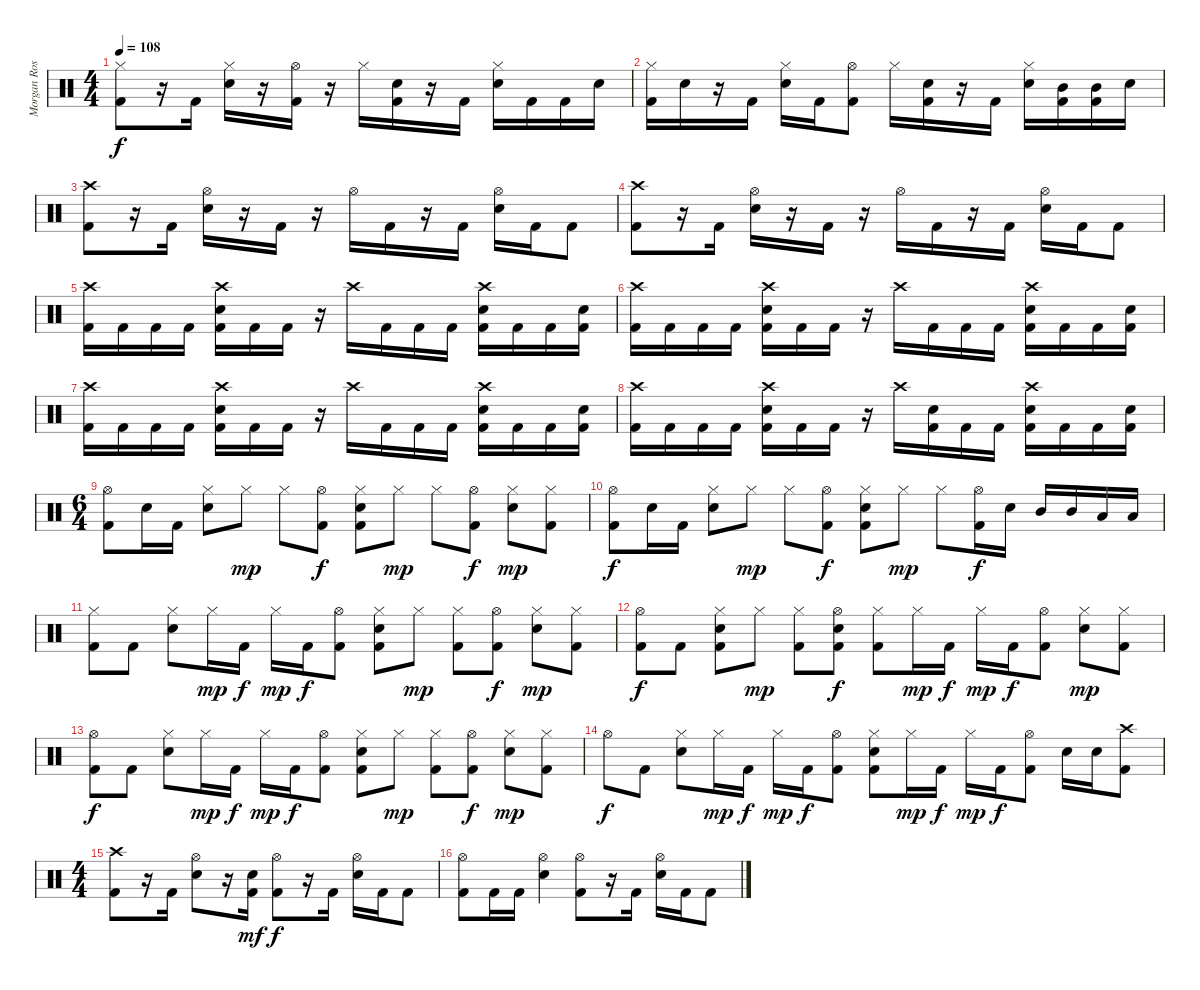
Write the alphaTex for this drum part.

\track ("Morgan Rose - Drums" "Morgan Ros") {instrument percussion}
\staff {score}
\articulation defaults
\ts (4 4)
\tempo 108
\clef neutral
\ks c
("Hi-Hat (closed)" "Kick (hit) 2").8{dy f} r.16 "Kick (hit) 2".16 ("Hi-Hat (closed)" "Electric Snare (hit)").16 r.16 ("Hi-Hat (open)" "Kick (hit) 2").16 r.16 "Hi-Hat (closed)".16 ("Electric Snare (hit)" "Kick (hit) 2").16 r.16 "Kick (hit) 2".16 ("Hi-Hat (closed)" "Electric Snare (hit)").16 "Kick (hit) 2".16 "Kick (hit) 2".16 "Electric Snare (hit)".16 |
("Hi-Hat (closed)" "Kick (hit) 2").16 "Electric Snare (hit)".16 r.16 "Kick (hit) 2".16 ("Hi-Hat (closed)" "Electric Snare (hit)").16 "Kick (hit) 2".16 ("Hi-Hat (open)" "Kick (hit) 2").8 "Hi-Hat (closed)".16 ("Electric Snare (hit)" "Kick (hit) 2").16 r.16 "Kick (hit) 2".16 ("Hi-Hat (closed)" "Electric Snare (hit)").16 ("Mid Tom (hit)" "Kick (hit) 2").16 ("Mid Tom (hit)" "Kick (hit) 2").16 "Electric Snare (hit)".16 |
("Crash high (hit)" "Kick (hit) 2").8 r.16 "Kick (hit) 2".16 ("Hi-Hat (open)" "Electric Snare (hit)").16 r.16 "Kick (hit) 2".16 r.16 "Hi-Hat (open)".16 "Kick (hit) 2".16 r.16 "Kick (hit) 2".16 ("Hi-Hat (open)" "Electric Snare (hit)").16 "Kick (hit) 2".16 "Kick (hit) 2".8 |
("Crash high (hit)" "Kick (hit) 2").8 r.16 "Kick (hit) 2".16 ("Hi-Hat (open)" "Electric Snare (hit)").16 r.16 "Kick (hit) 2".16 r.16 "Hi-Hat (open)".16 "Kick (hit) 2".16 r.16 "Kick (hit) 2".16 ("Hi-Hat (open)" "Electric Snare (hit)").16 "Kick (hit) 2".16 "Kick (hit) 2".8 |
("Crash high (hit)" "Kick (hit) 2").16 "Kick (hit) 2".16 "Kick (hit) 2".16 "Kick (hit) 2".16 ("Crash high (hit)" "Electric Snare (hit)" "Kick (hit) 2").16 "Kick (hit) 2".16 "Kick (hit) 2".16 r.16 "Crash high (hit)".16 "Kick (hit) 2".16 "Kick (hit) 2".16 "Kick (hit) 2".16 ("Crash high (hit)" "Electric Snare (hit)" "Kick (hit) 2").16 "Kick (hit) 2".16 "Kick (hit) 2".16 ("Electric Snare (hit)" "Kick (hit) 2").16 |
("Crash high (hit)" "Kick (hit) 2").16 "Kick (hit) 2".16 "Kick (hit) 2".16 "Kick (hit) 2".16 ("Crash high (hit)" "Electric Snare (hit)" "Kick (hit) 2").16 "Kick (hit) 2".16 "Kick (hit) 2".16 r.16 "Crash high (hit)".16 "Kick (hit) 2".16 "Kick (hit) 2".16 "Kick (hit) 2".16 ("Crash high (hit)" "Electric Snare (hit)" "Kick (hit) 2").16 "Kick (hit) 2".16 "Kick (hit) 2".16 ("Electric Snare (hit)" "Kick (hit) 2").16 |
("Crash high (hit)" "Kick (hit) 2").16 "Kick (hit) 2".16 "Kick (hit) 2".16 "Kick (hit) 2".16 ("Crash high (hit)" "Electric Snare (hit)" "Kick (hit) 2").16 "Kick (hit) 2".16 "Kick (hit) 2".16 r.16 "Crash high (hit)".16 "Kick (hit) 2".16 "Kick (hit) 2".16 "Kick (hit) 2".16 ("Crash high (hit)" "Electric Snare (hit)" "Kick (hit) 2").16 "Kick (hit) 2".16 "Kick (hit) 2".16 ("Electric Snare (hit)" "Kick (hit) 2").16 |
("Crash high (hit)" "Kick (hit) 2").16 "Kick (hit) 2".16 "Kick (hit) 2".16 "Kick (hit) 2".16 ("Crash high (hit)" "Electric Snare (hit)" "Kick (hit) 2").16 "Kick (hit) 2".16 "Kick (hit) 2".16 r.16 "Crash high (hit)".16 ("Electric Snare (hit)" "Kick (hit) 2").16 "Kick (hit) 2".16 "Kick (hit) 2".16 ("Crash high (hit)" "Electric Snare (hit)" "Kick (hit) 2").16 "Kick (hit) 2".16 "Kick (hit) 2".16 ("Electric Snare (hit)" "Kick (hit) 2").16 |
\ts (6 4)
("Hi-Hat (open)" "Kick (hit) 2").8 "Snare (hit)"{x}.16 "Kick (hit) 2".16 ("Hi-Hat (closed)" "Electric Snare (hit)").8 "Hi-Hat (closed)".8{dy mp} "Hi-Hat (closed)".8 ("Hi-Hat (open)" "Kick (hit) 2").8{dy f} ("Hi-Hat (closed)" "Electric Snare (hit)" "Kick (hit) 2").8 "Hi-Hat (closed)".8{dy mp} "Hi-Hat (closed)".8 ("Hi-Hat (open)" "Kick (hit) 2").8{dy f} ("Hi-Hat (closed)" "Electric Snare (hit)").8{dy mp} ("Hi-Hat (closed)" "Kick (hit) 2").8 |
("Hi-Hat (open)" "Kick (hit) 2").8{dy f} "Snare (hit)"{x}.16 "Kick (hit) 2".16 ("Hi-Hat (closed)" "Electric Snare (hit)").8 "Hi-Hat (closed)".8{dy mp} "Hi-Hat (closed)".8 ("Hi-Hat (open)" "Kick (hit) 2").8{dy f} ("Hi-Hat (closed)" "Electric Snare (hit)" "Kick (hit) 2").8 "Hi-Hat (closed)".8{dy mp} "Hi-Hat (closed)".8 ("Hi-Hat (open)" "Kick (hit) 2").16{dy f} "Electric Snare (hit)".16 "Mid Tom (hit)".16 "Mid Tom (hit)".16 "Low Tom (hit)".16 "Low Tom (hit)".16 |
("Hi-Hat (closed)" "Kick (hit) 2").8 "Kick (hit) 2".8 ("Hi-Hat (closed)" "Electric Snare (hit)").8 "Hi-Hat (closed)".16{dy mp} "Kick (hit) 2".16{dy f} "Hi-Hat (closed)".16{dy mp} "Kick (hit) 2".16{dy f} ("Hi-Hat (open)" "Kick (hit) 2").8 ("Hi-Hat (closed)" "Electric Snare (hit)" "Kick (hit) 2").8 "Hi-Hat (closed)".8{dy mp} ("Hi-Hat (closed)" "Kick (hit) 2").8 ("Hi-Hat (open)" "Kick (hit) 2").8{dy f} ("Hi-Hat (closed)" "Electric Snare (hit)").8{dy mp} ("Hi-Hat (closed)" "Kick (hit) 2").8 |
("Hi-Hat (open)" "Kick (hit) 2").8{dy f} "Kick (hit) 2".8 ("Hi-Hat (closed)" "Electric Snare (hit)" "Kick (hit) 2").8 "Hi-Hat (closed)".8{dy mp} ("Hi-Hat (closed)" "Kick (hit) 2").8 ("Hi-Hat (open)" "Electric Snare (hit)" "Kick (hit) 2").8{dy f} ("Hi-Hat (closed)" "Kick (hit) 2").8 "Hi-Hat (closed)".16{dy mp} "Kick (hit) 2".16{dy f} "Hi-Hat (closed)".16{dy mp} "Kick (hit) 2".16{dy f} ("Hi-Hat (open)" "Kick (hit) 2").8 ("Hi-Hat (closed)" "Electric Snare (hit)").8{dy mp} ("Hi-Hat (closed)" "Kick (hit) 2").8 |
("Hi-Hat (open)" "Kick (hit) 2").8{dy f} "Kick (hit) 2".8 ("Hi-Hat (closed)" "Electric Snare (hit)").8 "Hi-Hat (closed)".16{dy mp} "Kick (hit) 2".16{dy f} "Hi-Hat (closed)".16{dy mp} "Kick (hit) 2".16{dy f} ("Hi-Hat (open)" "Kick (hit) 2").8 ("Hi-Hat (closed)" "Electric Snare (hit)" "Kick (hit) 2").8 "Hi-Hat (closed)".8{dy mp} ("Hi-Hat (closed)" "Kick (hit) 2").8 ("Hi-Hat (open)" "Kick (hit) 2").8{dy f} ("Hi-Hat (closed)" "Electric Snare (hit)").8{dy mp} ("Hi-Hat (closed)" "Kick (hit) 2").8 |
"Hi-Hat (open)".8{dy f} "Kick (hit) 2".8 ("Hi-Hat (closed)" "Electric Snare (hit)").8 "Hi-Hat (closed)".16{dy mp} "Kick (hit) 2".16{dy f} "Hi-Hat (closed)".16{dy mp} "Kick (hit) 2".16{dy f} ("Hi-Hat (open)" "Kick (hit) 2").8 ("Hi-Hat (closed)" "Electric Snare (hit)" "Kick (hit) 2").8 "Hi-Hat (closed)".16{dy mp} "Kick (hit) 2".16{dy f} "Hi-Hat (closed)".16{dy mp} "Kick (hit) 2".16{dy f} ("Hi-Hat (open)" "Kick (hit) 2").8 "Electric Snare (hit)".16 "Electric Snare (hit)".16 ("Crash high (hit)" "Kick (hit) 2").8 |
\ts (4 4)
("Crash high (hit)" "Kick (hit) 2").8 r.16 "Kick (hit) 2".16 ("Hi-Hat (open)" "Electric Snare (hit)").8 r.16 ("Electric Snare (hit)" "Kick (hit) 2").16{dy mf} ("Hi-Hat (open)" "Kick (hit) 2").8{dy f} r.16 "Kick (hit) 2".16 ("Hi-Hat (open)" "Electric Snare (hit)").16 "Kick (hit) 2".16 "Kick (hit) 2".8 |
("Hi-Hat (open)" "Kick (hit) 2").8 "Kick (hit) 2".16 "Kick (hit) 2".16 ("Hi-Hat (open)" "Electric Snare (hit)").4 ("Hi-Hat (open)" "Kick (hit) 2").8 r.16 "Kick (hit) 2".16 ("Hi-Hat (open)" "Electric Snare (hit)").16 "Kick (hit) 2".16 "Kick (hit) 2".8
